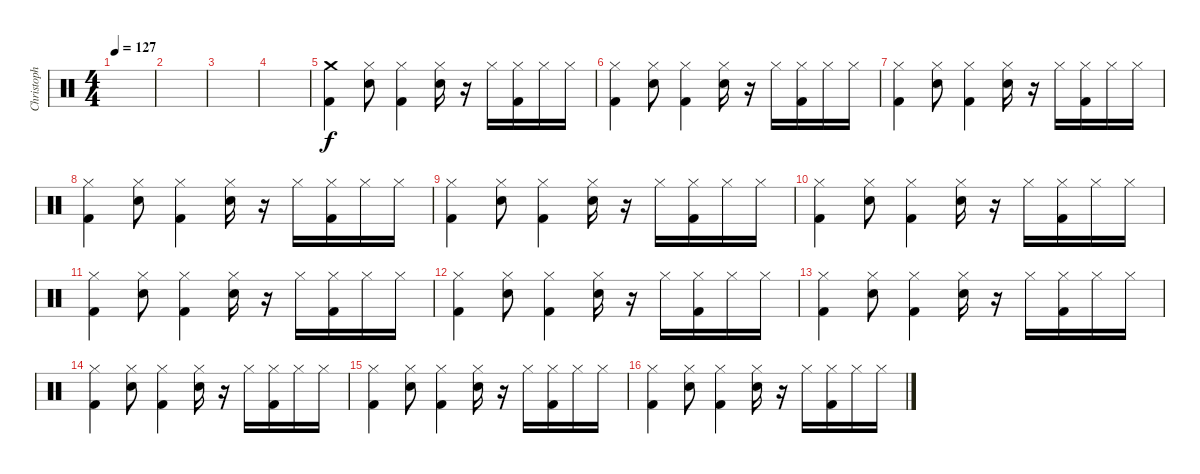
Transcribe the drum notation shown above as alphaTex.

\track ("Christoph Schneider - Drums" "Christoph ") {instrument percussion}
\staff {score}
\articulation defaults
\ts (4 4)
\tempo 127
\clef neutral
\ks c
|
|
|
|
("Crash medium (hit)" "Kick (hit) 2").4 ("Hi-Hat (closed)" "Electric Snare (hit)").8 ("Hi-Hat (closed)" "Kick (hit) 2").4 ("Hi-Hat (closed)" "Electric Snare (hit)").16 r.16 "Hi-Hat (closed)".16 ("Hi-Hat (closed)" "Kick (hit) 2").16 "Hi-Hat (closed)".16 "Hi-Hat (closed)".16 |
("Hi-Hat (closed)" "Kick (hit) 2").4 ("Hi-Hat (closed)" "Electric Snare (hit)").8 ("Hi-Hat (closed)" "Kick (hit) 2").4 ("Hi-Hat (closed)" "Electric Snare (hit)").16 r.16 "Hi-Hat (closed)".16 ("Hi-Hat (closed)" "Kick (hit) 2").16 "Hi-Hat (closed)".16 "Hi-Hat (closed)".16 |
("Hi-Hat (closed)" "Kick (hit) 2").4 ("Hi-Hat (closed)" "Electric Snare (hit)").8 ("Hi-Hat (closed)" "Kick (hit) 2").4 ("Hi-Hat (closed)" "Electric Snare (hit)").16 r.16 "Hi-Hat (closed)".16 ("Hi-Hat (closed)" "Kick (hit) 2").16 "Hi-Hat (closed)".16 "Hi-Hat (closed)".16 |
("Hi-Hat (closed)" "Kick (hit) 2").4 ("Hi-Hat (closed)" "Electric Snare (hit)").8 ("Hi-Hat (closed)" "Kick (hit) 2").4 ("Hi-Hat (closed)" "Electric Snare (hit)").16 r.16 "Hi-Hat (closed)".16 ("Hi-Hat (closed)" "Kick (hit) 2").16 "Hi-Hat (closed)".16 "Hi-Hat (closed)".16 |
("Hi-Hat (closed)" "Kick (hit) 2").4 ("Hi-Hat (closed)" "Electric Snare (hit)").8 ("Hi-Hat (closed)" "Kick (hit) 2").4 ("Hi-Hat (closed)" "Electric Snare (hit)").16 r.16 "Hi-Hat (closed)".16 ("Hi-Hat (closed)" "Kick (hit) 2").16 "Hi-Hat (closed)".16 "Hi-Hat (closed)".16 |
("Hi-Hat (closed)" "Kick (hit) 2").4 ("Hi-Hat (closed)" "Electric Snare (hit)").8 ("Hi-Hat (closed)" "Kick (hit) 2").4 ("Hi-Hat (closed)" "Electric Snare (hit)").16 r.16 "Hi-Hat (closed)".16 ("Hi-Hat (closed)" "Kick (hit) 2").16 "Hi-Hat (closed)".16 "Hi-Hat (closed)".16 |
("Hi-Hat (closed)" "Kick (hit) 2").4 ("Hi-Hat (closed)" "Electric Snare (hit)").8 ("Hi-Hat (closed)" "Kick (hit) 2").4 ("Hi-Hat (closed)" "Electric Snare (hit)").16 r.16 "Hi-Hat (closed)".16 ("Hi-Hat (closed)" "Kick (hit) 2").16 "Hi-Hat (closed)".16 "Hi-Hat (closed)".16 |
("Hi-Hat (closed)" "Kick (hit) 2").4 ("Hi-Hat (closed)" "Electric Snare (hit)").8 ("Hi-Hat (closed)" "Kick (hit) 2").4 ("Hi-Hat (closed)" "Electric Snare (hit)").16 r.16 "Hi-Hat (closed)".16 ("Hi-Hat (closed)" "Kick (hit) 2").16 "Hi-Hat (closed)".16 "Hi-Hat (closed)".16 |
("Hi-Hat (closed)" "Kick (hit) 2").4 ("Hi-Hat (closed)" "Electric Snare (hit)").8 ("Hi-Hat (closed)" "Kick (hit) 2").4 ("Hi-Hat (closed)" "Electric Snare (hit)").16 r.16 "Hi-Hat (closed)".16 ("Hi-Hat (closed)" "Kick (hit) 2").16 "Hi-Hat (closed)".16 "Hi-Hat (closed)".16 |
("Hi-Hat (closed)" "Kick (hit) 2").4 ("Hi-Hat (closed)" "Electric Snare (hit)").8 ("Hi-Hat (closed)" "Kick (hit) 2").4 ("Hi-Hat (closed)" "Electric Snare (hit)").16 r.16 "Hi-Hat (closed)".16 ("Hi-Hat (closed)" "Kick (hit) 2").16 "Hi-Hat (closed)".16 "Hi-Hat (closed)".16 |
("Hi-Hat (closed)" "Kick (hit) 2").4 ("Hi-Hat (closed)" "Electric Snare (hit)").8 ("Hi-Hat (closed)" "Kick (hit) 2").4 ("Hi-Hat (closed)" "Electric Snare (hit)").16 r.16 "Hi-Hat (closed)".16 ("Hi-Hat (closed)" "Kick (hit) 2").16 "Hi-Hat (closed)".16 "Hi-Hat (closed)".16 |
("Hi-Hat (closed)" "Kick (hit) 2").4 ("Hi-Hat (closed)" "Electric Snare (hit)").8 ("Hi-Hat (closed)" "Kick (hit) 2").4 ("Hi-Hat (closed)" "Electric Snare (hit)").16 r.16 "Hi-Hat (closed)".16 ("Hi-Hat (closed)" "Kick (hit) 2").16 "Hi-Hat (closed)".16 "Hi-Hat (closed)".16
